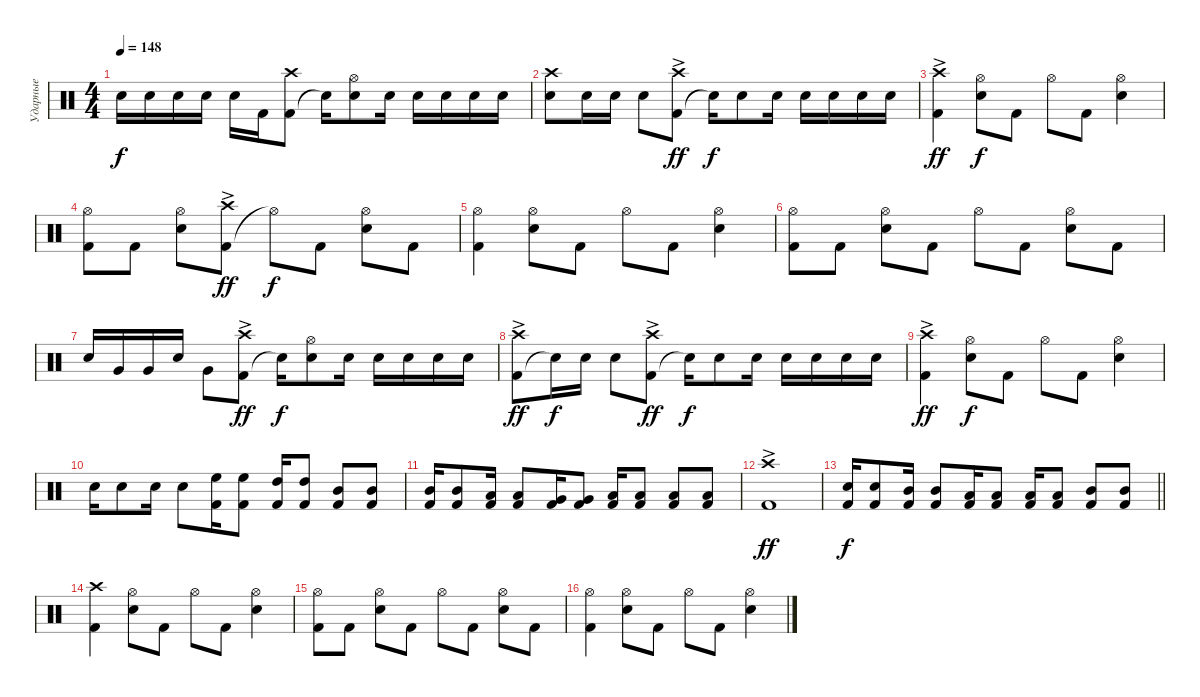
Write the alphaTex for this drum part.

\track ("Ударные" "Ударные") {instrument percussion}
\staff {score}
\articulation defaults
\ts (4 4)
\tempo 148
\clef neutral
\ks c "Snare (hit) 2".16{dy f} "Electric Snare (hit)".16 "Electric Snare (hit)".16 "Snare (hit) 2".16 "Electric Snare (hit)".16 "Kick (hit) 2".16
("Kick (hit) 2" "Crash high (hit)").8 "Snare (hit)"{t}.16 ("Snare (hit) 2" "Hi-Hat (open)").8 "Electric Snare (hit)".16 "Electric Snare (hit)".16 "Electric Snare (hit)".16 "Electric Snare (hit)".16 "Electric Snare (hit)".16 |
("Snare (hit) 2" "Crash high (hit)").8 "Electric Snare (hit)".16 "Electric Snare (hit)".16 "Snare (hit) 2".8 ("Kick (hit) 2" "Crash high (hit)"{ac}).8{dy ff} "Snare (hit)"{t}.16{dy f} "Snare (hit) 2".8 "Electric Snare (hit)".16 "Electric Snare (hit)".16 "Electric Snare (hit)".16 "Electric Snare (hit)".16 "Electric Snare (hit)".16 |
("Kick (hit) 2" "Crash high (hit)"{ac}).4{dy ff} ("Snare (hit) 2" "Hi-Hat (open)").8{dy f} "Kick (hit) 2".8 "Hi-Hat (open)".8 "Kick (hit) 2".8 ("Snare (hit) 2" "Hi-Hat (open)").4 |
("Kick (hit) 2" "Hi-Hat (open)").8 "Kick (hit) 2".8 ("Snare (hit) 2" "Hi-Hat (open)").8 ("Kick (hit) 2" "Crash high (hit)"{ac}).8{dy ff} "Hi-Hat (open)"{t}.8{dy f} "Kick (hit) 2".8 ("Snare (hit) 2" "Hi-Hat (open)").8 "Kick (hit) 2".8 |
("Kick (hit) 2" "Hi-Hat (open)").4 ("Snare (hit) 2" "Hi-Hat (open)").8 "Kick (hit) 2".8 "Hi-Hat (open)".8 "Kick (hit) 2".8 ("Snare (hit) 2" "Hi-Hat (open)").4 |
("Kick (hit) 2" "Hi-Hat (open)").8 "Kick (hit) 2".8 ("Snare (hit) 2" "Hi-Hat (open)").8 "Kick (hit) 2".8 "Hi-Hat (open)".8 "Kick (hit) 2".8 ("Snare (hit) 2" "Hi-Hat (open)").8 "Kick (hit) 2".8 |
"Snare (hit) 2".16 "Very Low Tom (hit)".16 "Very Low Tom (hit)".16 "Snare (hit) 2".16 "Very Low Tom (hit)".8 ("Kick (hit) 2" "Crash high (hit)"{ac}).8{dy ff} "Snare (hit)"{t}.16{dy f} ("Snare (hit) 2" "Hi-Hat (open)").8 "Electric Snare (hit)".16 "Electric Snare (hit)".16 "Electric Snare (hit)".16 "Electric Snare (hit)".16 "Electric Snare (hit)".16 |
("Kick (hit) 2" "Crash high (hit)"{ac}).8{dy ff} "Snare (hit)"{t}.16{dy f} "Snare (hit) 2".16 "Snare (hit) 2".8 ("Kick (hit) 2" "Crash high (hit)"{ac}).8{dy ff} "Snare (hit)"{t}.16{dy f} "Snare (hit) 2".8 "Electric Snare (hit)".16 "Electric Snare (hit)".16 "Electric Snare (hit)".16 "Electric Snare (hit)".16 "Electric Snare (hit)".16 |
("Kick (hit) 2" "Crash high (hit)"{ac}).4{dy ff} ("Snare (hit) 2" "Hi-Hat (open)").8{dy f} "Kick (hit) 2".8 "Hi-Hat (open)".8 "Kick (hit) 2".8 ("Snare (hit) 2" "Hi-Hat (open)").4 |
"Snare (hit) 2".16 "Snare (hit) 2".8 "Snare (hit) 2".16 "Snare (hit) 2".8 ("Kick (hit) 2" "High Floor Tom (hit)").16 ("Kick (hit) 2" "High Floor Tom (hit)").8 ("Kick (hit) 2" "High Tom (hit)").16 ("Kick (hit) 2" "High Tom (hit)").8 ("Kick (hit) 2" "Mid Tom (hit)").8 ("Kick (hit) 2" "Mid Tom (hit)").8 |
("Kick (hit) 2" "Mid Tom (hit)").16 ("Kick (hit) 2" "Mid Tom (hit)").8 ("Kick (hit) 2" "Low Tom (hit)").16 ("Kick (hit) 2" "Low Tom (hit)").8 ("Kick (hit) 2" "Very Low Tom (hit)").16 ("Kick (hit) 2" "Very Low Tom (hit)").8 ("Kick (hit) 2" "Low Floor Tom (hit)").16 ("Kick (hit) 2" "Low Floor Tom (hit)").8 ("Kick (hit) 2" "Low Floor Tom (hit)").8 ("Kick (hit) 2" "Low Floor Tom (hit)").8 |
("Kick (hit) 2" "Crash high (hit)"{ac}).1{dy ff} |
\barLineRight lightlight
("Kick (hit) 2" "Snare (hit) 2").16{dy f} ("Kick (hit) 2" "Snare (hit) 2").8 ("Kick (hit) 2" "Mid Tom (hit)").16 ("Kick (hit) 2" "Mid Tom (hit)").8 ("Kick (hit) 2" "Low Tom (hit)").16 ("Kick (hit) 2" "Low Tom (hit)").8 ("Kick (hit) 2" "Low Floor Tom (hit)").16 ("Kick (hit) 2" "Low Floor Tom (hit)").8 ("Kick (hit) 2" "Mid Tom (hit)").8 ("Kick (hit) 2" "Mid Tom (hit)").8 |
("Kick (hit) 2" "Crash high (hit)").4 ("Snare (hit) 2" "Hi-Hat (open)").8 "Kick (hit) 2".8 "Hi-Hat (open)".8 "Kick (hit) 2".8 ("Snare (hit) 2" "Hi-Hat (open)").4 |
("Kick (hit) 2" "Hi-Hat (open)").8 "Kick (hit) 2".8 ("Snare (hit) 2" "Hi-Hat (open)").8 "Kick (hit) 2".8 "Hi-Hat (open)".8 "Kick (hit) 2".8 ("Snare (hit) 2" "Hi-Hat (open)").8 "Kick (hit) 2".8 |
("Kick (hit) 2" "Hi-Hat (open)").4 ("Snare (hit) 2" "Hi-Hat (open)").8 "Kick (hit) 2".8 "Hi-Hat (open)".8 "Kick (hit) 2".8 ("Snare (hit) 2" "Hi-Hat (open)").4
